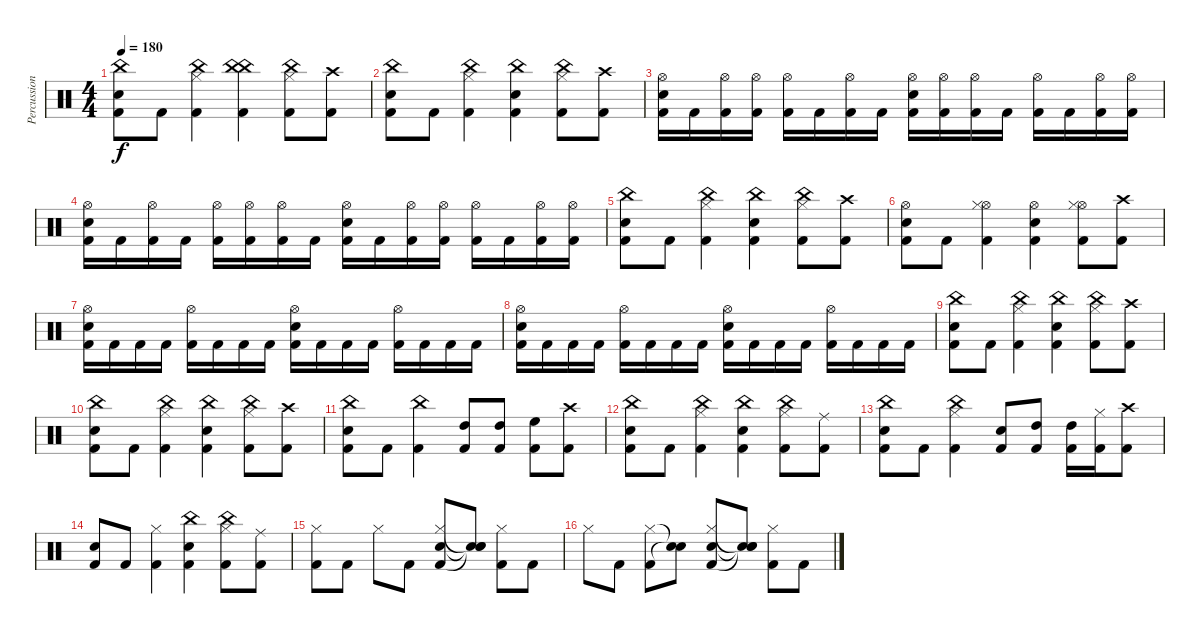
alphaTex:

\track ("Percussion" "Percussion") {instrument percussion}
\staff {score}
\articulation defaults
\ts (4 4)
\tempo 180
\clef neutral
\ks c
("China (hit)" "Electric Snare (hit)" "Kick (hit) 2").8{dy f} "Kick (hit) 2".8 ("China (hit)" "Hi-Hat (closed)" "Kick (hit) 2").4 ("China (hit)" "China (hit)" "Kick (hit) 2").4 ("China (hit)" "Hi-Hat (closed)" "Kick (hit) 2").8 ("Crash high (hit)" "Kick (hit) 2").8 |
("China (hit)" "Electric Snare (hit)" "Kick (hit) 2").8 "Kick (hit) 2".8 ("China (hit)" "Hi-Hat (closed)" "Kick (hit) 2").4 ("China (hit)" "Electric Snare (hit)" "Kick (hit) 2").4 ("China (hit)" "Hi-Hat (closed)" "Kick (hit) 2").8 ("Crash high (hit)" "Kick (hit) 2").8 |
("Hi-Hat (open)" "Electric Snare (hit)" "Kick (hit) 2").16 "Kick (hit) 2".16 ("Hi-Hat (open)" "Kick (hit) 2").16 ("Hi-Hat (open)" "Kick (hit) 2").16 ("Hi-Hat (open)" "Kick (hit) 2").16 "Kick (hit) 2".16 ("Hi-Hat (open)" "Kick (hit) 2").16 "Kick (hit) 2".16 ("Hi-Hat (open)" "Electric Snare (hit)" "Kick (hit) 2").16 ("Hi-Hat (open)" "Kick (hit) 2").16 ("Hi-Hat (open)" "Kick (hit) 2").16 "Kick (hit) 2".16 ("Hi-Hat (open)" "Kick (hit) 2").16 "Kick (hit) 2".16 ("Hi-Hat (open)" "Kick (hit) 2").16 ("Hi-Hat (open)" "Kick (hit) 2").16 |
("Hi-Hat (open)" "Electric Snare (hit)" "Kick (hit) 2").16 "Kick (hit) 2".16 ("Hi-Hat (open)" "Kick (hit) 2").16 "Kick (hit) 2".16 ("Hi-Hat (open)" "Kick (hit) 2").16 ("Hi-Hat (open)" "Kick (hit) 2").16 ("Hi-Hat (open)" "Kick (hit) 2").16 "Kick (hit) 2".16 ("Hi-Hat (open)" "Electric Snare (hit)" "Kick (hit) 2").16 "Kick (hit) 2".16 ("Hi-Hat (open)" "Kick (hit) 2").16 ("Hi-Hat (open)" "Kick (hit) 2").16 ("Hi-Hat (open)" "Kick (hit) 2").16 "Kick (hit) 2".16 ("Hi-Hat (open)" "Kick (hit) 2").16 ("Hi-Hat (open)" "Kick (hit) 2").16 |
("China (hit)" "Electric Snare (hit)" "Kick (hit) 2").8 "Kick (hit) 2".8 ("China (hit)" "Hi-Hat (closed)" "Kick (hit) 2").4 ("China (hit)" "Electric Snare (hit)" "Kick (hit) 2").4 ("China (hit)" "Hi-Hat (closed)" "Kick (hit) 2").8 ("Crash high (hit)" "Kick (hit) 2").8 |
("Hi-Hat (open)" "Electric Snare (hit)" "Kick (hit) 2").8 "Kick (hit) 2".8 ("Hi-Hat (open)" "Hi-Hat (closed)" "Kick (hit) 2").4 ("Hi-Hat (open)" "Electric Snare (hit)" "Kick (hit) 2").4 ("Hi-Hat (open)" "Hi-Hat (closed)" "Kick (hit) 2").8 ("Crash high (hit)" "Kick (hit) 2").8 |
("Hi-Hat (open)" "Electric Snare (hit)" "Kick (hit) 2").16 "Kick (hit) 2".16 "Kick (hit) 2".16 "Kick (hit) 2".16 ("Hi-Hat (open)" "Kick (hit) 2").16 "Kick (hit) 2".16 "Kick (hit) 2".16 "Kick (hit) 2".16 ("Hi-Hat (open)" "Electric Snare (hit)" "Kick (hit) 2").16 "Kick (hit) 2".16 "Kick (hit) 2".16 "Kick (hit) 2".16 ("Hi-Hat (open)" "Kick (hit) 2").16 "Kick (hit) 2".16 "Kick (hit) 2".16 "Kick (hit) 2".16 |
("Hi-Hat (open)" "Electric Snare (hit)" "Kick (hit) 2").16 "Kick (hit) 2".16 "Kick (hit) 2".16 "Kick (hit) 2".16 ("Hi-Hat (open)" "Kick (hit) 2").16 "Kick (hit) 2".16 "Kick (hit) 2".16 "Kick (hit) 2".16 ("Hi-Hat (open)" "Electric Snare (hit)" "Kick (hit) 2").16 "Kick (hit) 2".16 "Kick (hit) 2".16 "Kick (hit) 2".16 ("Hi-Hat (open)" "Kick (hit) 2").16 "Kick (hit) 2".16 "Kick (hit) 2".16 "Kick (hit) 2".16 |
("China (hit)" "Electric Snare (hit)" "Kick (hit) 2").8 "Kick (hit) 2".8 ("China (hit)" "Hi-Hat (closed)" "Kick (hit) 2").4 ("China (hit)" "Electric Snare (hit)" "Kick (hit) 2").4 ("China (hit)" "Hi-Hat (closed)" "Kick (hit) 2").8 ("Crash high (hit)" "Kick (hit) 2").8 |
("China (hit)" "Snare (hit) 2" "Kick (hit) 2").8 "Kick (hit) 2".8 ("China (hit)" "Hi-Hat (closed)" "Kick (hit) 2").4 ("China (hit)" "Snare (hit) 2" "Kick (hit) 2").4 ("China (hit)" "Hi-Hat (closed)" "Kick (hit) 2").8 ("Crash high (hit)" "Kick (hit) 2").8 |
("China (hit)" "Snare (hit) 2" "Kick (hit) 2").8 "Kick (hit) 2".8 ("China (hit)" "Kick (hit) 2").4 ("High Tom (hit)" "Kick (hit) 2").8 ("High Tom (hit)" "Kick (hit) 2").8 ("High Floor Tom (hit)" "Kick (hit) 2").8 ("Crash high (hit)" "Kick (hit) 2").8 |
("China (hit)" "Snare (hit) 2" "Kick (hit) 2").8 "Kick (hit) 2".8 ("China (hit)" "Hi-Hat (closed)" "Kick (hit) 2").4 ("China (hit)" "Snare (hit) 2" "Kick (hit) 2").4 ("China (hit)" "Hi-Hat (closed)" "Kick (hit) 2").8 ("Ride (middle)" "Kick (hit) 2").8 |
("China (hit)" "Snare (hit) 2" "Kick (hit) 2").8 "Kick (hit) 2".8 ("China (hit)" "Hi-Hat (closed)" "Kick (hit) 2").4 ("Snare (hit) 2" "Kick (hit) 2").8 ("High Tom (hit)" "Kick (hit) 2").8 ("High Tom (hit)" "Kick (hit) 2").16 ("Hi-Hat (closed)" "Kick (hit) 2").16 ("Crash high (hit)" "Kick (hit) 2").8 |
("Snare (hit) 2" "Kick (hit) 2").8 "Kick (hit) 2".8 ("Hi-Hat (closed)" "Kick (hit) 2").4 ("China (hit)" "Snare (hit) 2" "Kick (hit) 2").4 ("China (hit)" "Hi-Hat (closed)" "Kick (hit) 2").8 ("Ride (middle)" "Kick (hit) 2").8 |
("Hi-Hat (closed)" "Kick (hit) 2").8 "Kick (hit) 2".8 "Hi-Hat (closed)".8 "Kick (hit) 2".8 ("Hi-Hat (closed)" "Snare (hit) 2" "Kick (hit) 2").8 ("Snare (hit)"{t} "Snare (hit)"{t} "Snare (hit)"{t}).8 ("Hi-Hat (closed)" "Kick (hit) 2").8 "Kick (hit) 2".8 |
"Hi-Hat (closed)".8 "Kick (hit) 2".8 ("Hi-Hat (closed)" "Kick (hit) 2").8 ("Snare (hit)"{t} "Snare (hit)"{t}).8 ("Hi-Hat (closed)" "Snare (hit) 2" "Kick (hit) 2").8 ("Snare (hit)"{t} "Snare (hit)"{t} "Snare (hit)"{t}).8 ("Hi-Hat (closed)" "Kick (hit) 2").8 "Kick (hit) 2".8
